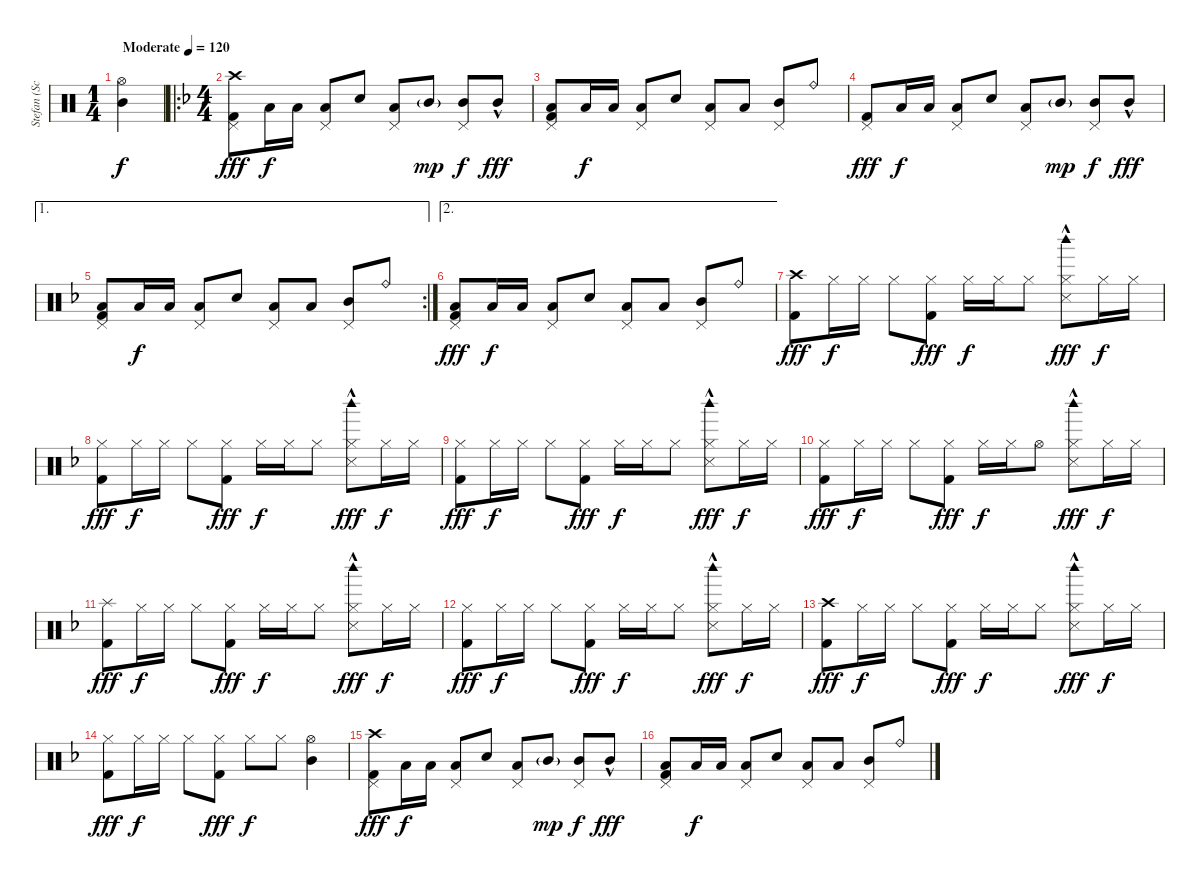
\track ("Stefan (Schlagzeug)" "Stefan (Sc") {instrument percussion}
\staff {score}
\articulation defaults
\ts (1 4)
\tempo (120 "Moderate")
\clef neutral
\ks c
("Hi-Hat (open)" "Mid Tom (hit)").4{dy f} |
\ro
\ts (4 4)
\ks f
("Crash high (hit)" "Kick (hit) 2" "Pedal Hi-Hat (hit)").8{dy fff} "Low Tom (hit)".16{dy f} "Low Tom (hit)".16 ("Low Tom (hit)" "Pedal Hi-Hat (hit)").8 "Snare (hit) 2".8 ("Low Tom (hit)" "Pedal Hi-Hat (hit)").8 "Mid Tom (hit)"{g}.8{dy mp} ("Mid Tom (hit)" "Pedal Hi-Hat (hit)").8{dy f} "Mid Tom (hit)"{hac}.8{dy fff} |
("Low Tom (hit)" "Kick (hit) 2" "Pedal Hi-Hat (hit)").8 "Low Tom (hit)".16{dy f} "Low Tom (hit)".16 ("Low Tom (hit)" "Pedal Hi-Hat (hit)").8 "Snare (hit) 2".8 ("Low Tom (hit)" "Pedal Hi-Hat (hit)").8 "Low Tom (hit)".8 ("Mid Tom (hit)" "Pedal Hi-Hat (hit)").8 "Ride (bell)".8 |
("Kick (hit) 2" "Pedal Hi-Hat (hit)").8{dy fff} "Low Tom (hit)".16{dy f} "Low Tom (hit)".16 ("Low Tom (hit)" "Pedal Hi-Hat (hit)").8 "Snare (hit) 2".8 ("Low Tom (hit)" "Pedal Hi-Hat (hit)").8 "Mid Tom (hit)"{g}.8{dy mp} ("Mid Tom (hit)" "Pedal Hi-Hat (hit)").8{dy f} "Mid Tom (hit)"{hac}.8{dy fff} |
\ae 1
\rc 2
("Low Tom (hit)" "Kick (hit) 2" "Pedal Hi-Hat (hit)").8 "Low Tom (hit)".16{dy f} "Low Tom (hit)".16 ("Low Tom (hit)" "Pedal Hi-Hat (hit)").8 "Snare (hit) 2".8 ("Low Tom (hit)" "Pedal Hi-Hat (hit)").8 "Low Tom (hit)".8 ("Mid Tom (hit)" "Pedal Hi-Hat (hit)").8 "Ride (bell)".8 |
\ae 2
("Low Tom (hit)" "Kick (hit) 2" "Pedal Hi-Hat (hit)").8{dy fff} "Low Tom (hit)".16{dy f} "Low Tom (hit)".16 ("Low Tom (hit)" "Pedal Hi-Hat (hit)").8 "Snare (hit) 2".8 ("Low Tom (hit)" "Pedal Hi-Hat (hit)").8 "Low Tom (hit)".8 ("Mid Tom (hit)" "Pedal Hi-Hat (hit)").8 "Ride (bell)".8 |
("Crash high (hit)" "Kick (hit) 2").8{dy fff} "Hi-Hat (closed)".16{dy f} "Hi-Hat (closed)".16 "Hi-Hat (closed)".8 ("Hi-Hat (closed)" "Kick (hit) 2").8{dy fff} "Hi-Hat (closed)".16{dy f} "Hi-Hat (closed)".16 "Hi-Hat (closed)".8 ("Hi-Hat (closed)" "Woodblock high (hit)"{hac} "Snare (side stick) 3").8{dy fff} "Hi-Hat (closed)".16{dy f} "Hi-Hat (closed)".16 |
("Hi-Hat (closed)" "Kick (hit) 2").8{dy fff} "Hi-Hat (closed)".16{dy f} "Hi-Hat (closed)".16 "Hi-Hat (closed)".8 ("Hi-Hat (closed)" "Kick (hit) 2").8{dy fff} "Hi-Hat (closed)".16{dy f} "Hi-Hat (closed)".16 "Hi-Hat (closed)".8 ("Hi-Hat (closed)" "Woodblock high (hit)"{hac} "Snare (side stick) 3").8{dy fff} "Hi-Hat (closed)".16{dy f} "Hi-Hat (closed)".16 |
("Hi-Hat (closed)" "Kick (hit) 2").8{dy fff} "Hi-Hat (closed)".16{dy f} "Hi-Hat (closed)".16 "Hi-Hat (closed)".8 ("Hi-Hat (closed)" "Kick (hit) 2").8{dy fff} "Hi-Hat (closed)".16{dy f} "Hi-Hat (closed)".16 "Hi-Hat (closed)".8 ("Hi-Hat (closed)" "Woodblock high (hit)"{hac} "Snare (side stick) 3").8{dy fff} "Hi-Hat (closed)".16{dy f} "Hi-Hat (closed)".16 |
("Hi-Hat (closed)" "Kick (hit) 2").8{dy fff} "Hi-Hat (closed)".16{dy f} "Hi-Hat (closed)".16 "Hi-Hat (closed)".8 ("Hi-Hat (closed)" "Kick (hit) 2").8{dy fff} "Hi-Hat (closed)".16{dy f} "Hi-Hat (closed)".16 "Hi-Hat (open)".8 ("Hi-Hat (closed)" "Woodblock high (hit)"{hac} "Snare (side stick) 3").8{dy fff} "Hi-Hat (closed)".16{dy f} "Hi-Hat (closed)".16 |
("Splash (hit)" "Kick (hit) 2").8{dy fff} "Hi-Hat (closed)".16{dy f} "Hi-Hat (closed)".16 "Hi-Hat (closed)".8 ("Hi-Hat (closed)" "Kick (hit) 2").8{dy fff} "Hi-Hat (closed)".16{dy f} "Hi-Hat (closed)".16 "Hi-Hat (closed)".8 ("Hi-Hat (closed)" "Woodblock high (hit)"{hac} "Snare (side stick) 3").8{dy fff} "Hi-Hat (closed)".16{dy f} "Hi-Hat (closed)".16 |
("Hi-Hat (closed)" "Kick (hit) 2").8{dy fff} "Hi-Hat (closed)".16{dy f} "Hi-Hat (closed)".16 "Hi-Hat (closed)".8 ("Hi-Hat (closed)" "Kick (hit) 2").8{dy fff} "Hi-Hat (closed)".16{dy f} "Hi-Hat (closed)".16 "Hi-Hat (closed)".8 ("Hi-Hat (closed)" "Woodblock high (hit)"{hac} "Snare (side stick) 3").8{dy fff} "Hi-Hat (closed)".16{dy f} "Hi-Hat (closed)".16 |
("Crash high (hit)" "Kick (hit) 2").8{dy fff} "Hi-Hat (closed)".16{dy f} "Hi-Hat (closed)".16 "Hi-Hat (closed)".8 ("Hi-Hat (closed)" "Kick (hit) 2").8{dy fff} "Hi-Hat (closed)".16{dy f} "Hi-Hat (closed)".16 "Hi-Hat (closed)".8 ("Hi-Hat (closed)" "Woodblock high (hit)"{hac} "Snare (side stick) 3").8{dy fff} "Hi-Hat (closed)".16{dy f} "Hi-Hat (closed)".16 |
("Hi-Hat (closed)" "Kick (hit) 2").8{dy fff} "Hi-Hat (closed)".16{dy f} "Hi-Hat (closed)".16 "Hi-Hat (closed)".8 ("Hi-Hat (closed)" "Kick (hit) 2").8{dy fff} "Hi-Hat (closed)".8{dy f} "Hi-Hat (closed)".8 ("Hi-Hat (open)" "Mid Tom (hit)").4 |
("Crash high (hit)" "Kick (hit) 2" "Pedal Hi-Hat (hit)").8{dy fff} "Low Tom (hit)".16{dy f} "Low Tom (hit)".16 ("Low Tom (hit)" "Pedal Hi-Hat (hit)").8 "Snare (hit) 2".8 ("Low Tom (hit)" "Pedal Hi-Hat (hit)").8 "Mid Tom (hit)"{g}.8{dy mp} ("Mid Tom (hit)" "Pedal Hi-Hat (hit)").8{dy f} "Mid Tom (hit)"{hac}.8{dy fff} |
("Low Tom (hit)" "Kick (hit) 2" "Pedal Hi-Hat (hit)").8 "Low Tom (hit)".16{dy f} "Low Tom (hit)".16 ("Low Tom (hit)" "Pedal Hi-Hat (hit)").8 "Snare (hit) 2".8 ("Low Tom (hit)" "Pedal Hi-Hat (hit)").8 "Low Tom (hit)".8 ("Mid Tom (hit)" "Pedal Hi-Hat (hit)").8 "Ride (bell)".8
